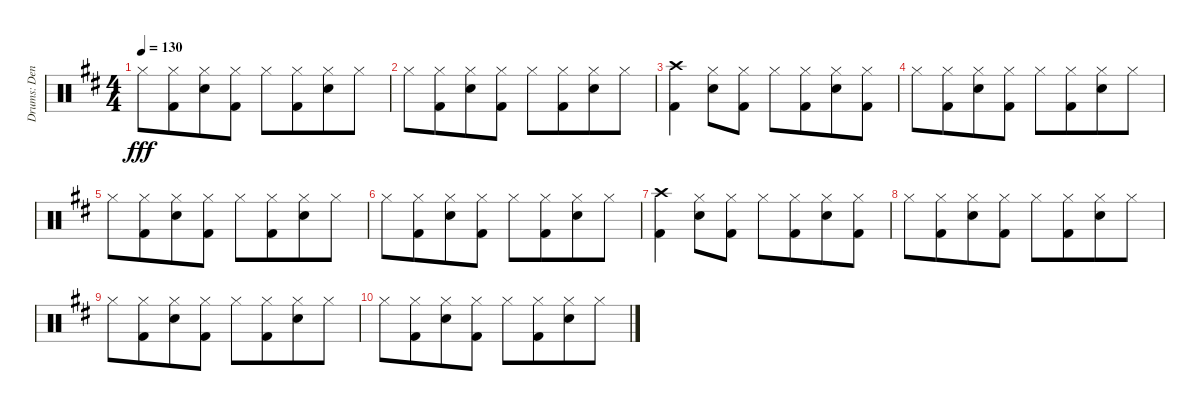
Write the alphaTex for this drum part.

\track ("Drums: Denny" "Drums: Den") {instrument percussion}
\staff {score}
\articulation defaults
\ts (4 4)
\tempo 130
\clef neutral
\ks d "Hi-Hat (closed)".8{dy fff}
("Hi-Hat (closed)" "Kick (hit) 2").8{beam merge} ("Hi-Hat (closed)" "Electric Snare (hit)").8 ("Hi-Hat (closed)" "Kick (hit) 2").8 "Hi-Hat (closed)".8 ("Hi-Hat (closed)" "Kick (hit) 2").8{beam merge} ("Hi-Hat (closed)" "Electric Snare (hit)").8 "Hi-Hat (closed)".8 |
"Hi-Hat (closed)".8 ("Hi-Hat (closed)" "Kick (hit) 2").8{beam merge} ("Hi-Hat (closed)" "Electric Snare (hit)").8 ("Hi-Hat (closed)" "Kick (hit) 2").8 "Hi-Hat (closed)".8 ("Hi-Hat (closed)" "Kick (hit) 2").8{beam merge} ("Hi-Hat (closed)" "Electric Snare (hit)").8 "Hi-Hat (closed)".8 |
("Crash high (hit)" "Kick (hit) 2").4 ("Hi-Hat (closed)" "Electric Snare (hit)").8 ("Hi-Hat (closed)" "Kick (hit) 2").8 "Hi-Hat (closed)".8 ("Hi-Hat (closed)" "Kick (hit) 2").8{beam merge} ("Hi-Hat (closed)" "Electric Snare (hit)").8 ("Hi-Hat (closed)" "Kick (hit) 2").8 |
"Hi-Hat (closed)".8 ("Hi-Hat (closed)" "Kick (hit) 2").8{beam merge} ("Hi-Hat (closed)" "Electric Snare (hit)").8 ("Hi-Hat (closed)" "Kick (hit) 2").8 "Hi-Hat (closed)".8 ("Hi-Hat (closed)" "Kick (hit) 2").8{beam merge} ("Hi-Hat (closed)" "Electric Snare (hit)").8 "Hi-Hat (closed)".8 |
"Hi-Hat (closed)".8 ("Hi-Hat (closed)" "Kick (hit) 2").8{beam merge} ("Hi-Hat (closed)" "Electric Snare (hit)").8 ("Hi-Hat (closed)" "Kick (hit) 2").8 "Hi-Hat (closed)".8 ("Hi-Hat (closed)" "Kick (hit) 2").8{beam merge} ("Hi-Hat (closed)" "Electric Snare (hit)").8 "Hi-Hat (closed)".8 |
"Hi-Hat (closed)".8 ("Hi-Hat (closed)" "Kick (hit) 2").8{beam merge} ("Hi-Hat (closed)" "Electric Snare (hit)").8 ("Hi-Hat (closed)" "Kick (hit) 2").8 "Hi-Hat (closed)".8 ("Hi-Hat (closed)" "Kick (hit) 2").8{beam merge} ("Hi-Hat (closed)" "Electric Snare (hit)").8 "Hi-Hat (closed)".8 |
("Crash high (hit)" "Kick (hit) 2").4 ("Hi-Hat (closed)" "Electric Snare (hit)").8 ("Hi-Hat (closed)" "Kick (hit) 2").8 "Hi-Hat (closed)".8 ("Hi-Hat (closed)" "Kick (hit) 2").8{beam merge} ("Hi-Hat (closed)" "Electric Snare (hit)").8 ("Hi-Hat (closed)" "Kick (hit) 2").8 |
"Hi-Hat (closed)".8 ("Hi-Hat (closed)" "Kick (hit) 2").8{beam merge} ("Hi-Hat (closed)" "Electric Snare (hit)").8 ("Hi-Hat (closed)" "Kick (hit) 2").8 "Hi-Hat (closed)".8 ("Hi-Hat (closed)" "Kick (hit) 2").8{beam merge} ("Hi-Hat (closed)" "Electric Snare (hit)").8 "Hi-Hat (closed)".8 |
"Hi-Hat (closed)".8 ("Hi-Hat (closed)" "Kick (hit) 2").8{beam merge} ("Hi-Hat (closed)" "Electric Snare (hit)").8 ("Hi-Hat (closed)" "Kick (hit) 2").8 "Hi-Hat (closed)".8 ("Hi-Hat (closed)" "Kick (hit) 2").8{beam merge} ("Hi-Hat (closed)" "Electric Snare (hit)").8 "Hi-Hat (closed)".8 |
"Hi-Hat (closed)".8 ("Hi-Hat (closed)" "Kick (hit) 2").8{beam merge} ("Hi-Hat (closed)" "Electric Snare (hit)").8 ("Hi-Hat (closed)" "Kick (hit) 2").8 "Hi-Hat (closed)".8 ("Hi-Hat (closed)" "Kick (hit) 2").8{beam merge} ("Hi-Hat (closed)" "Electric Snare (hit)").8 "Hi-Hat (closed)".8
